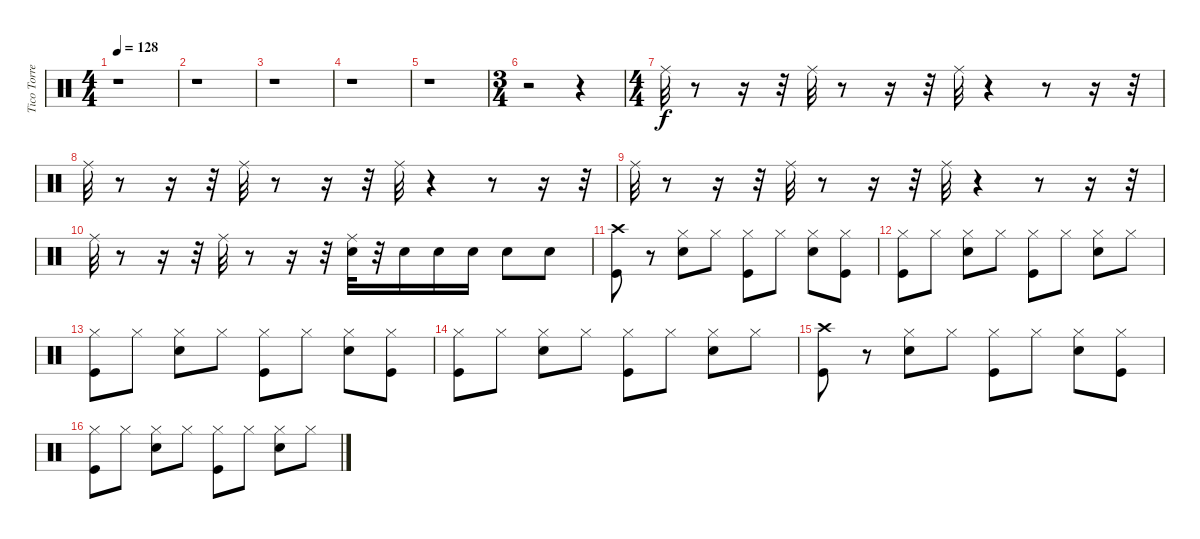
\track ("Tico Torres" "Tico Torre") {instrument percussion}
\staff {score}
\articulation defaults
\ts (4 4)
\tempo 128
\clef neutral
\ks c
r.1{dy f} |
r.1 |
r.1 |
r.1 |
r.1 |
\ts (3 4)
r.2 r.4 |
\ts (4 4)
"Ride (middle)".32 r.8 r.16 r.32 "Ride (middle)".32 r.8 r.16 r.32 "Ride (middle)".32 r.4 r.8 r.16 r.32 |
"Ride (middle)".32 r.8 r.16 r.32 "Ride (middle)".32 r.8 r.16 r.32 "Ride (middle)".32 r.4 r.8 r.16 r.32 |
"Ride (middle)".32 r.8 r.16 r.32 "Ride (middle)".32 r.8 r.16 r.32 "Ride (middle)".32 r.4 r.8 r.16 r.32 |
"Ride (middle)".32 r.8 r.16 r.32 "Ride (middle)".32 r.8 r.16 r.32 ("Ride (middle)" "Snare (hit) 2").32 r.32 "Snare (hit) 2".16 "Snare (hit) 2".16 "Snare (hit) 2".16 "Snare (hit) 2".8 "Snare (hit) 2".8 |
("Kick (hit)" "Crash high (hit)").8 r.8 ("Hi-Hat (closed)" "Snare (hit) 2").8 "Hi-Hat (closed)".8 ("Hi-Hat (closed)" "Kick (hit)").8 "Hi-Hat (closed)".8 ("Hi-Hat (closed)" "Snare (hit) 2").8 ("Kick (hit)" "Hi-Hat (closed)").8 |
("Hi-Hat (closed)" "Kick (hit)").8 "Hi-Hat (closed)".8 ("Hi-Hat (closed)" "Snare (hit) 2").8 "Hi-Hat (closed)".8 ("Hi-Hat (closed)" "Kick (hit)").8 "Hi-Hat (closed)".8 ("Hi-Hat (closed)" "Snare (hit) 2").8 "Hi-Hat (closed)".8 |
("Hi-Hat (closed)" "Kick (hit)").8 "Hi-Hat (closed)".8 ("Hi-Hat (closed)" "Snare (hit) 2").8 "Hi-Hat (closed)".8 ("Hi-Hat (closed)" "Kick (hit)").8 "Hi-Hat (closed)".8 ("Hi-Hat (closed)" "Snare (hit) 2").8 ("Hi-Hat (closed)" "Kick (hit)").8 |
("Hi-Hat (closed)" "Kick (hit)").8 "Hi-Hat (closed)".8 ("Hi-Hat (closed)" "Snare (hit) 2").8 "Hi-Hat (closed)".8 ("Hi-Hat (closed)" "Kick (hit)").8 "Hi-Hat (closed)".8 ("Hi-Hat (closed)" "Snare (hit) 2").8 "Hi-Hat (closed)".8 |
("Kick (hit)" "Crash high (hit)").8 r.8 ("Hi-Hat (closed)" "Snare (hit) 2").8 "Hi-Hat (closed)".8 ("Hi-Hat (closed)" "Kick (hit)").8 "Hi-Hat (closed)".8 ("Hi-Hat (closed)" "Snare (hit) 2").8 ("Kick (hit)" "Hi-Hat (closed)").8 |
("Hi-Hat (closed)" "Kick (hit)").8 "Hi-Hat (closed)".8 ("Hi-Hat (closed)" "Snare (hit) 2").8 "Hi-Hat (closed)".8 ("Hi-Hat (closed)" "Kick (hit)").8 "Hi-Hat (closed)".8 ("Hi-Hat (closed)" "Snare (hit) 2").8 "Hi-Hat (closed)".8
